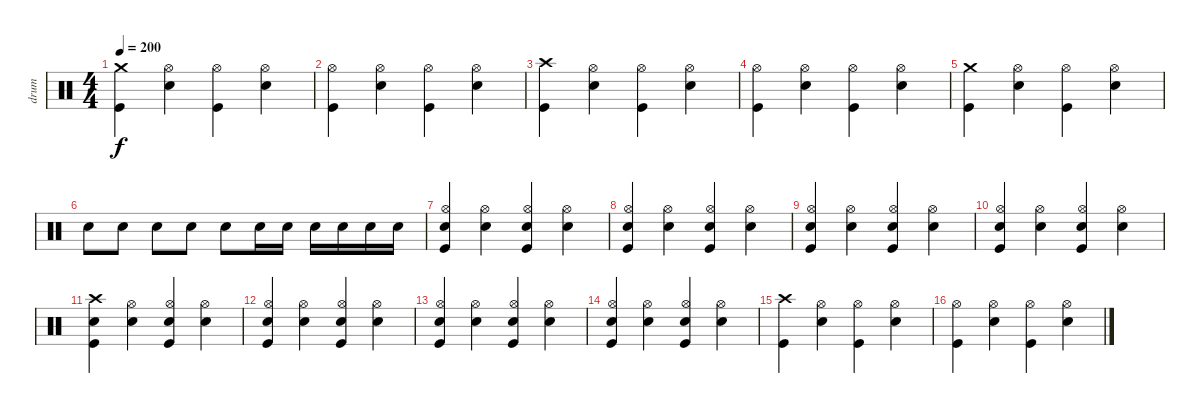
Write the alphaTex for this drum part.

\track ("drum" "drum") {instrument percussion}
\staff {score}
\articulation defaults
\ts (4 4)
\tempo 200
\clef neutral
\ks c
("Crash medium (hit)" "Kick (hit)").4{dy f} ("Hi-Hat (open)" "Snare (hit) 2").4 ("Hi-Hat (open)" "Kick (hit)").4 ("Hi-Hat (open)" "Snare (hit) 2").4 |
("Hi-Hat (open)" "Kick (hit)").4 ("Hi-Hat (open)" "Snare (hit) 2").4 ("Hi-Hat (open)" "Kick (hit)").4 ("Hi-Hat (open)" "Snare (hit) 2").4 |
("Crash high (hit)" "Kick (hit)").4 ("Hi-Hat (open)" "Snare (hit) 2").4 ("Hi-Hat (open)" "Kick (hit)").4 ("Hi-Hat (open)" "Snare (hit) 2").4 |
("Hi-Hat (open)" "Kick (hit)").4 ("Hi-Hat (open)" "Snare (hit) 2").4 ("Hi-Hat (open)" "Kick (hit)").4 ("Hi-Hat (open)" "Snare (hit) 2").4 |
("Crash medium (hit)" "Kick (hit)").4 ("Hi-Hat (open)" "Snare (hit) 2").4 ("Hi-Hat (open)" "Kick (hit)").4 ("Hi-Hat (open)" "Snare (hit) 2").4 |
"Snare (hit) 2".8 "Snare (hit) 2".8 "Snare (hit) 2".8 "Snare (hit) 2".8 "Snare (hit) 2".8 "Snare (hit) 2".16 "Snare (hit) 2".16 "Snare (hit) 2".16 "Snare (hit) 2".16 "Snare (hit) 2".16 "Snare (hit) 2".16 |
("Hi-Hat (open)" "Snare (hit) 2" "Kick (hit)").4 ("Hi-Hat (open)" "Snare (hit) 2").4 ("Hi-Hat (open)" "Snare (hit) 2" "Kick (hit)").4 ("Hi-Hat (open)" "Snare (hit) 2").4 |
("Hi-Hat (open)" "Snare (hit) 2" "Kick (hit)").4 ("Hi-Hat (open)" "Snare (hit) 2").4 ("Hi-Hat (open)" "Snare (hit) 2" "Kick (hit)").4 ("Hi-Hat (open)" "Snare (hit) 2").4 |
("Hi-Hat (open)" "Snare (hit) 2" "Kick (hit)").4 ("Hi-Hat (open)" "Snare (hit) 2").4 ("Hi-Hat (open)" "Snare (hit) 2" "Kick (hit)").4 ("Hi-Hat (open)" "Snare (hit) 2").4 |
("Hi-Hat (open)" "Snare (hit) 2" "Kick (hit)").4 ("Hi-Hat (open)" "Snare (hit) 2").4 ("Hi-Hat (open)" "Snare (hit) 2" "Kick (hit)").4 ("Hi-Hat (open)" "Snare (hit) 2").4 |
("Crash high (hit)" "Snare (hit) 2" "Kick (hit)").4 ("Hi-Hat (open)" "Snare (hit) 2").4 ("Hi-Hat (open)" "Snare (hit) 2" "Kick (hit)").4 ("Hi-Hat (open)" "Snare (hit) 2").4 |
("Hi-Hat (open)" "Snare (hit) 2" "Kick (hit)").4 ("Hi-Hat (open)" "Snare (hit) 2").4 ("Hi-Hat (open)" "Snare (hit) 2" "Kick (hit)").4 ("Hi-Hat (open)" "Snare (hit) 2").4 |
("Hi-Hat (open)" "Snare (hit) 2" "Kick (hit)").4 ("Hi-Hat (open)" "Snare (hit) 2").4 ("Hi-Hat (open)" "Snare (hit) 2" "Kick (hit)").4 ("Hi-Hat (open)" "Snare (hit) 2").4 |
("Hi-Hat (open)" "Snare (hit) 2" "Kick (hit)").4 ("Hi-Hat (open)" "Snare (hit) 2").4 ("Hi-Hat (open)" "Snare (hit) 2" "Kick (hit)").4 ("Hi-Hat (open)" "Snare (hit) 2").4 |
("Crash high (hit)" "Kick (hit)").4 ("Hi-Hat (open)" "Snare (hit) 2").4 ("Hi-Hat (open)" "Kick (hit)").4 ("Hi-Hat (open)" "Snare (hit) 2").4 |
("Hi-Hat (open)" "Kick (hit)").4 ("Hi-Hat (open)" "Snare (hit) 2").4 ("Hi-Hat (open)" "Kick (hit)").4 ("Hi-Hat (open)" "Snare (hit) 2").4
